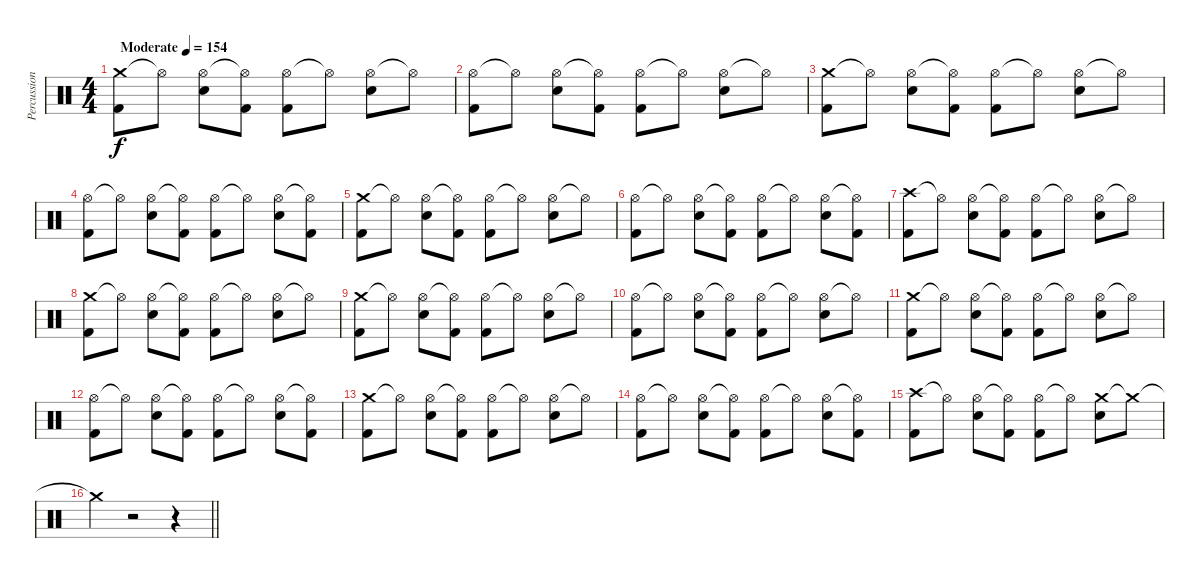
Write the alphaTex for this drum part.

\track ("Percussion" "Percussion") {instrument percussion}
\staff {score}
\articulation defaults
\ts (4 4)
\tempo (154 "Moderate")
\clef neutral
\ks c
("Crash medium (hit)" "Kick (hit) 2").8{dy f} "Hi-Hat (open)"{t}.8 ("Hi-Hat (open)" "Electric Snare (hit)").8 ("Hi-Hat (open)"{t} "Kick (hit) 2").8 ("Hi-Hat (open)" "Kick (hit) 2").8 "Hi-Hat (open)"{t}.8 ("Hi-Hat (open)" "Electric Snare (hit)").8 "Hi-Hat (open)"{t}.8 |
("Hi-Hat (open)" "Kick (hit) 2").8 "Hi-Hat (open)"{t}.8 ("Hi-Hat (open)" "Electric Snare (hit)").8 ("Hi-Hat (open)"{t} "Kick (hit) 2").8 ("Hi-Hat (open)" "Kick (hit) 2").8 "Hi-Hat (open)"{t}.8 ("Hi-Hat (open)" "Electric Snare (hit)").8 "Hi-Hat (open)"{t}.8 |
("Crash medium (hit)" "Kick (hit) 2").8 "Hi-Hat (open)"{t}.8 ("Hi-Hat (open)" "Electric Snare (hit)").8 ("Hi-Hat (open)"{t} "Kick (hit) 2").8 ("Hi-Hat (open)" "Kick (hit) 2").8 "Hi-Hat (open)"{t}.8 ("Hi-Hat (open)" "Electric Snare (hit)").8 "Hi-Hat (open)"{t}.8 |
("Hi-Hat (open)" "Kick (hit) 2").8 "Hi-Hat (open)"{t}.8 ("Hi-Hat (open)" "Electric Snare (hit)").8 ("Hi-Hat (open)"{t} "Kick (hit) 2").8 ("Hi-Hat (open)" "Kick (hit) 2").8 "Hi-Hat (open)"{t}.8 ("Hi-Hat (open)" "Electric Snare (hit)").8 ("Hi-Hat (open)"{t} "Kick (hit) 2").8 |
("Crash medium (hit)" "Kick (hit) 2").8 "Hi-Hat (open)"{t}.8 ("Hi-Hat (open)" "Electric Snare (hit)").8 ("Hi-Hat (open)"{t} "Kick (hit) 2").8 ("Hi-Hat (open)" "Kick (hit) 2").8 "Hi-Hat (open)"{t}.8 ("Hi-Hat (open)" "Electric Snare (hit)").8 "Hi-Hat (open)"{t}.8 |
("Hi-Hat (open)" "Kick (hit) 2").8 "Hi-Hat (open)"{t}.8 ("Hi-Hat (open)" "Electric Snare (hit)").8 ("Hi-Hat (open)"{t} "Kick (hit) 2").8 ("Hi-Hat (open)" "Kick (hit) 2").8 "Hi-Hat (open)"{t}.8 ("Hi-Hat (open)" "Electric Snare (hit)").8 ("Hi-Hat (open)"{t} "Kick (hit) 2").8 |
("Crash high (hit)" "Kick (hit) 2").8 "Hi-Hat (open)"{t}.8 ("Hi-Hat (open)" "Electric Snare (hit)").8 ("Hi-Hat (open)"{t} "Kick (hit) 2").8 ("Hi-Hat (open)" "Kick (hit) 2").8 "Hi-Hat (open)"{t}.8 ("Hi-Hat (open)" "Electric Snare (hit)").8 "Hi-Hat (open)"{t}.8 |
("Crash medium (hit)" "Kick (hit) 2").8 "Hi-Hat (open)"{t}.8 ("Hi-Hat (open)" "Electric Snare (hit)").8 ("Hi-Hat (open)"{t} "Kick (hit) 2").8 ("Hi-Hat (open)" "Kick (hit) 2").8 "Hi-Hat (open)"{t}.8 ("Hi-Hat (open)" "Electric Snare (hit)").8 "Hi-Hat (open)"{t}.8 |
("Crash medium (hit)" "Kick (hit) 2").8 "Hi-Hat (open)"{t}.8 ("Hi-Hat (open)" "Electric Snare (hit)").8 ("Hi-Hat (open)"{t} "Kick (hit) 2").8 ("Hi-Hat (open)" "Kick (hit) 2").8 "Hi-Hat (open)"{t}.8 ("Hi-Hat (open)" "Electric Snare (hit)").8 "Hi-Hat (open)"{t}.8 |
("Hi-Hat (open)" "Kick (hit) 2").8 "Hi-Hat (open)"{t}.8 ("Hi-Hat (open)" "Electric Snare (hit)").8 ("Hi-Hat (open)"{t} "Kick (hit) 2").8 ("Hi-Hat (open)" "Kick (hit) 2").8 "Hi-Hat (open)"{t}.8 ("Hi-Hat (open)" "Electric Snare (hit)").8 "Hi-Hat (open)"{t}.8 |
("Crash medium (hit)" "Kick (hit) 2").8 "Hi-Hat (open)"{t}.8 ("Hi-Hat (open)" "Electric Snare (hit)").8 ("Hi-Hat (open)"{t} "Kick (hit) 2").8 ("Hi-Hat (open)" "Kick (hit) 2").8 "Hi-Hat (open)"{t}.8 ("Hi-Hat (open)" "Electric Snare (hit)").8 "Hi-Hat (open)"{t}.8 |
("Hi-Hat (open)" "Kick (hit) 2").8 "Hi-Hat (open)"{t}.8 ("Hi-Hat (open)" "Electric Snare (hit)").8 ("Hi-Hat (open)"{t} "Kick (hit) 2").8 ("Hi-Hat (open)" "Kick (hit) 2").8 "Hi-Hat (open)"{t}.8 ("Hi-Hat (open)" "Electric Snare (hit)").8 ("Hi-Hat (open)"{t} "Kick (hit) 2").8 |
("Crash medium (hit)" "Kick (hit) 2").8 "Hi-Hat (open)"{t}.8 ("Hi-Hat (open)" "Electric Snare (hit)").8 ("Hi-Hat (open)"{t} "Kick (hit) 2").8 ("Hi-Hat (open)" "Kick (hit) 2").8 "Hi-Hat (open)"{t}.8 ("Hi-Hat (open)" "Electric Snare (hit)").8 "Hi-Hat (open)"{t}.8 |
("Hi-Hat (open)" "Kick (hit) 2").8 "Hi-Hat (open)"{t}.8 ("Hi-Hat (open)" "Electric Snare (hit)").8 ("Hi-Hat (open)"{t} "Kick (hit) 2").8 ("Hi-Hat (open)" "Kick (hit) 2").8 "Hi-Hat (open)"{t}.8 ("Hi-Hat (open)" "Electric Snare (hit)").8 ("Hi-Hat (open)"{t} "Kick (hit) 2").8 |
("Crash high (hit)" "Kick (hit) 2").8 "Hi-Hat (open)"{t}.8 ("Hi-Hat (open)" "Electric Snare (hit)").8 ("Hi-Hat (open)"{t} "Kick (hit) 2").8 ("Hi-Hat (open)" "Kick (hit) 2").8 "Hi-Hat (open)"{t}.8 ("Crash medium (hit)" "Electric Snare (hit)").8 "Crash medium (hit)"{t}.8 |
\barLineRight lightlight "Crash medium (hit)"{t}.4
r.2 r.4
